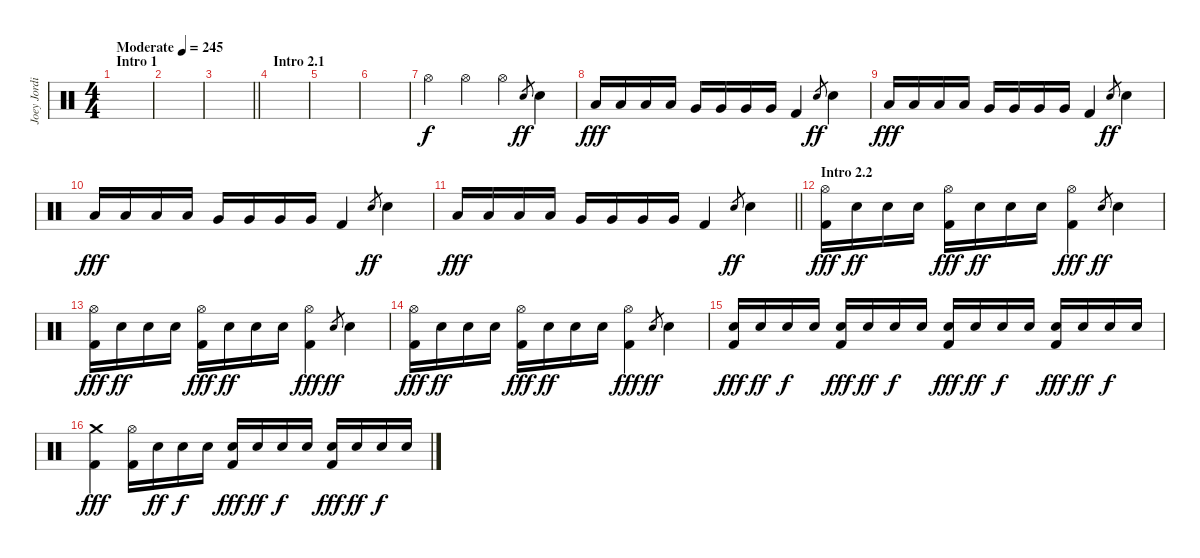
\track ("Joey Jordison" "Joey Jordi") {instrument percussion}
\staff {score}
\articulation defaults
\ts (4 4)
\section ("" "Intro 1")
\tempo (245 "Moderate")
\clef neutral
\ks c
|
|
\barLineRight lightlight
|
\section ("" "Intro 2.1")
|
|
|
"Hi-Hat (open)".4 "Hi-Hat (open)".4 "Hi-Hat (open)".4 "Electric Snare (hit)".8{gr dy ff} "Electric Snare (hit)".4 |
"Low Tom (hit)".16{dy fff} "Low Tom (hit)".16 "Low Tom (hit)".16 "Low Tom (hit)".16 "Very Low Tom (hit)".16 "Very Low Tom (hit)".16 "Very Low Tom (hit)".16 "Very Low Tom (hit)".16 "Kick (hit) 2".4 "Electric Snare (hit)".8{gr dy ff} "Electric Snare (hit)".4 |
"Low Tom (hit)".16{dy fff} "Low Tom (hit)".16 "Low Tom (hit)".16 "Low Tom (hit)".16 "Very Low Tom (hit)".16 "Very Low Tom (hit)".16 "Very Low Tom (hit)".16 "Very Low Tom (hit)".16 "Kick (hit) 2".4 "Electric Snare (hit)".8{gr dy ff} "Electric Snare (hit)".4 |
"Low Tom (hit)".16{dy fff} "Low Tom (hit)".16 "Low Tom (hit)".16 "Low Tom (hit)".16 "Very Low Tom (hit)".16 "Very Low Tom (hit)".16 "Very Low Tom (hit)".16 "Very Low Tom (hit)".16 "Kick (hit) 2".4 "Electric Snare (hit)".8{gr dy ff} "Electric Snare (hit)".4 |
\barLineRight lightlight "Low Tom (hit)".16{dy fff} "Low Tom (hit)".16 "Low Tom (hit)".16 "Low Tom (hit)".16 "Very Low Tom (hit)".16 "Very Low Tom (hit)".16 "Very Low Tom (hit)".16 "Very Low Tom (hit)".16 "Kick (hit) 2".4 "Electric Snare (hit)".8{gr dy ff} "Electric Snare (hit)".4
|
\section ("" "Intro 2.2")
("Hi-Hat (open)" "Kick (hit) 2").16{dy fff} "Electric Snare (hit)".16{dy ff} "Electric Snare (hit)".16 "Electric Snare (hit)".16 ("Hi-Hat (open)" "Kick (hit) 2").16{dy fff} "Electric Snare (hit)".16{dy ff} "Electric Snare (hit)".16 "Electric Snare (hit)".16 ("Hi-Hat (open)" "Kick (hit) 2").4{dy fff} "Electric Snare (hit)".8{gr dy ff} "Electric Snare (hit)".4 |
("Hi-Hat (open)" "Kick (hit) 2").16{dy fff} "Electric Snare (hit)".16{dy ff} "Electric Snare (hit)".16 "Electric Snare (hit)".16 ("Hi-Hat (open)" "Kick (hit) 2").16{dy fff} "Electric Snare (hit)".16{dy ff} "Electric Snare (hit)".16 "Electric Snare (hit)".16 ("Hi-Hat (open)" "Kick (hit) 2").4{dy fff} "Electric Snare (hit)".8{gr dy ff} "Electric Snare (hit)".4 |
("Hi-Hat (open)" "Kick (hit) 2").16{dy fff} "Electric Snare (hit)".16{dy ff} "Electric Snare (hit)".16 "Electric Snare (hit)".16 ("Hi-Hat (open)" "Kick (hit) 2").16{dy fff} "Electric Snare (hit)".16{dy ff} "Electric Snare (hit)".16 "Electric Snare (hit)".16 ("Hi-Hat (open)" "Kick (hit) 2").4{dy fff} "Electric Snare (hit)".8{gr dy ff} "Electric Snare (hit)".4 |
("Electric Snare (hit)" "Kick (hit) 2").16{dy fff} "Electric Snare (hit)".16{dy ff} "Electric Snare (hit)".16{dy f} "Electric Snare (hit)".16 ("Electric Snare (hit)" "Kick (hit) 2").16{dy fff} "Electric Snare (hit)".16{dy ff} "Electric Snare (hit)".16{dy f} "Electric Snare (hit)".16 ("Electric Snare (hit)" "Kick (hit) 2").16{dy fff} "Electric Snare (hit)".16{dy ff} "Electric Snare (hit)".16{dy f} "Electric Snare (hit)".16 ("Electric Snare (hit)" "Kick (hit) 2").16{dy fff} "Electric Snare (hit)".16{dy ff} "Electric Snare (hit)".16{dy f} "Electric Snare (hit)".16 |
("Crash medium (hit)" "Kick (hit) 2").4{dy fff} ("Hi-Hat (open)" "Kick (hit) 2").16 "Electric Snare (hit)".16{dy ff} "Electric Snare (hit)".16{dy f} "Electric Snare (hit)".16 ("Electric Snare (hit)" "Kick (hit) 2").16{dy fff} "Electric Snare (hit)".16{dy ff} "Electric Snare (hit)".16{dy f} "Electric Snare (hit)".16 ("Electric Snare (hit)" "Kick (hit) 2").16{dy fff} "Electric Snare (hit)".16{dy ff} "Electric Snare (hit)".16{dy f} "Electric Snare (hit)".16
